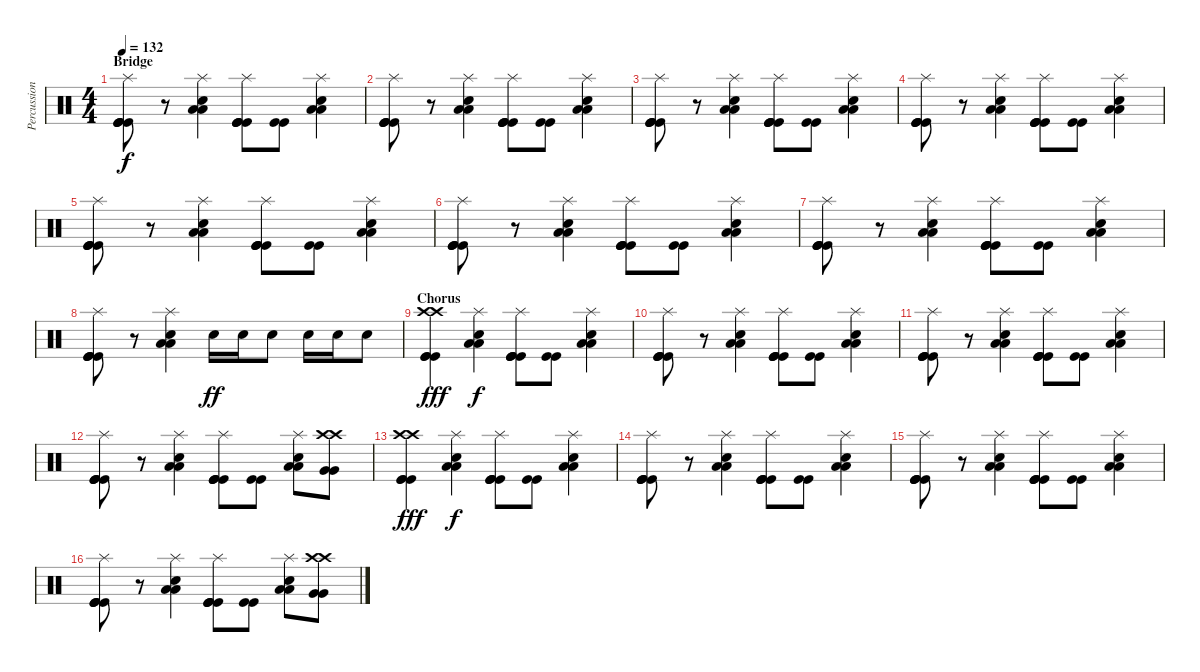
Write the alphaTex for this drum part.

\track ("Percussion" "Percussion") {instrument percussion}
\staff {score}
\articulation defaults
\ts (4 4)
\section ("" "Bridge")
\tempo 132
\clef neutral
\ks c
("Splash (hit)" "Kick (hit)" "Kick (hit)" "Kick (hit)" "Kick (hit)").8{dy f} r.8 ("Splash (hit)" "Low Tom (hit)" "Low Tom (hit)" "Electric Snare (hit)").4 ("Splash (hit)" "Kick (hit)" "Kick (hit)" "Kick (hit)" "Kick (hit)").8 ("Kick (hit)" "Kick (hit)").8 ("Splash (hit)" "Low Tom (hit)" "Low Tom (hit)" "Electric Snare (hit)").4 |
("Splash (hit)" "Kick (hit)" "Kick (hit)" "Kick (hit)" "Kick (hit)").8 r.8 ("Splash (hit)" "Low Tom (hit)" "Low Tom (hit)" "Electric Snare (hit)").4 ("Splash (hit)" "Kick (hit)" "Kick (hit)" "Kick (hit)" "Kick (hit)").8 ("Kick (hit)" "Kick (hit)").8 ("Splash (hit)" "Low Tom (hit)" "Low Tom (hit)" "Electric Snare (hit)").4 |
("Splash (hit)" "Kick (hit)" "Kick (hit)" "Kick (hit)" "Kick (hit)").8 r.8 ("Splash (hit)" "Low Tom (hit)" "Low Tom (hit)" "Electric Snare (hit)").4 ("Splash (hit)" "Kick (hit)" "Kick (hit)" "Kick (hit)" "Kick (hit)").8 ("Kick (hit)" "Kick (hit)").8 ("Splash (hit)" "Low Tom (hit)" "Low Tom (hit)" "Electric Snare (hit)").4 |
("Splash (hit)" "Kick (hit)" "Kick (hit)" "Kick (hit)" "Kick (hit)").8 r.8 ("Splash (hit)" "Low Tom (hit)" "Low Tom (hit)" "Electric Snare (hit)").4 ("Splash (hit)" "Kick (hit)" "Kick (hit)" "Kick (hit)" "Kick (hit)").8 ("Kick (hit)" "Kick (hit)").8 ("Splash (hit)" "Low Tom (hit)" "Low Tom (hit)" "Electric Snare (hit)").4 |
("Splash (hit)" "Kick (hit)" "Kick (hit)" "Kick (hit)" "Kick (hit)").8 r.8 ("Splash (hit)" "Low Tom (hit)" "Low Tom (hit)" "Electric Snare (hit)").4 ("Splash (hit)" "Kick (hit)" "Kick (hit)" "Kick (hit)" "Kick (hit)").8 ("Kick (hit)" "Kick (hit)").8 ("Splash (hit)" "Low Tom (hit)" "Low Tom (hit)" "Electric Snare (hit)").4 |
("Splash (hit)" "Kick (hit)" "Kick (hit)" "Kick (hit)" "Kick (hit)").8 r.8 ("Splash (hit)" "Low Tom (hit)" "Low Tom (hit)" "Electric Snare (hit)").4 ("Splash (hit)" "Kick (hit)" "Kick (hit)" "Kick (hit)" "Kick (hit)").8 ("Kick (hit)" "Kick (hit)").8 ("Splash (hit)" "Low Tom (hit)" "Low Tom (hit)" "Electric Snare (hit)").4 |
("Splash (hit)" "Kick (hit)" "Kick (hit)" "Kick (hit)" "Kick (hit)").8 r.8 ("Splash (hit)" "Low Tom (hit)" "Low Tom (hit)" "Electric Snare (hit)").4 ("Splash (hit)" "Kick (hit)" "Kick (hit)" "Kick (hit)" "Kick (hit)").8 ("Kick (hit)" "Kick (hit)").8 ("Splash (hit)" "Low Tom (hit)" "Low Tom (hit)" "Electric Snare (hit)").4 |
("Splash (hit)" "Kick (hit)" "Kick (hit)" "Kick (hit)" "Kick (hit)").8 r.8 ("Splash (hit)" "Low Tom (hit)" "Low Tom (hit)" "Electric Snare (hit)").4 "Electric Snare (hit)".16{dy ff} "Electric Snare (hit)".16 "Electric Snare (hit)".8 "Electric Snare (hit)".16 "Electric Snare (hit)".16 "Electric Snare (hit)".8 |
\section ("" "Chorus")
("Crash high (hit)" "Crash high (hit)" "Kick (hit)" "Kick (hit)" "Kick (hit)").4{dy fff} ("Splash (hit)" "Low Tom (hit)" "Low Tom (hit)" "Electric Snare (hit)").4{dy f} ("Splash (hit)" "Kick (hit)" "Kick (hit)" "Kick (hit)" "Kick (hit)").8 ("Kick (hit)" "Kick (hit)").8 ("Splash (hit)" "Low Tom (hit)" "Low Tom (hit)" "Electric Snare (hit)").4 |
("Splash (hit)" "Kick (hit)" "Kick (hit)" "Kick (hit)" "Kick (hit)").8 r.8 ("Splash (hit)" "Low Tom (hit)" "Low Tom (hit)" "Electric Snare (hit)").4 ("Splash (hit)" "Kick (hit)" "Kick (hit)" "Kick (hit)" "Kick (hit)").8 ("Kick (hit)" "Kick (hit)").8 ("Splash (hit)" "Low Tom (hit)" "Low Tom (hit)" "Electric Snare (hit)").4 |
("Splash (hit)" "Kick (hit)" "Kick (hit)" "Kick (hit)" "Kick (hit)").8 r.8 ("Splash (hit)" "Low Tom (hit)" "Low Tom (hit)" "Electric Snare (hit)").4 ("Splash (hit)" "Kick (hit)" "Kick (hit)" "Kick (hit)" "Kick (hit)").8 ("Kick (hit)" "Kick (hit)").8 ("Splash (hit)" "Low Tom (hit)" "Low Tom (hit)" "Electric Snare (hit)").4 |
("Splash (hit)" "Kick (hit)" "Kick (hit)" "Kick (hit)" "Kick (hit)").8 r.8 ("Splash (hit)" "Low Tom (hit)" "Low Tom (hit)" "Electric Snare (hit)").4 ("Splash (hit)" "Kick (hit)" "Kick (hit)" "Kick (hit)" "Kick (hit)").8 ("Kick (hit)" "Kick (hit)").8 ("Splash (hit)" "Low Tom (hit)" "Low Tom (hit)" "Electric Snare (hit)").8 ("Crash high (hit)" "Crash high (hit)" "Very Low Tom (hit)" "Very Low Tom (hit)").8 |
("Crash high (hit)" "Crash high (hit)" "Kick (hit)" "Kick (hit)" "Kick (hit)").4{dy fff} ("Splash (hit)" "Low Tom (hit)" "Low Tom (hit)" "Electric Snare (hit)").4{dy f} ("Splash (hit)" "Kick (hit)" "Kick (hit)" "Kick (hit)" "Kick (hit)").8 ("Kick (hit)" "Kick (hit)").8 ("Splash (hit)" "Low Tom (hit)" "Low Tom (hit)" "Electric Snare (hit)").4 |
("Splash (hit)" "Kick (hit)" "Kick (hit)" "Kick (hit)" "Kick (hit)").8 r.8 ("Splash (hit)" "Low Tom (hit)" "Low Tom (hit)" "Electric Snare (hit)").4 ("Splash (hit)" "Kick (hit)" "Kick (hit)" "Kick (hit)" "Kick (hit)").8 ("Kick (hit)" "Kick (hit)").8 ("Splash (hit)" "Low Tom (hit)" "Low Tom (hit)" "Electric Snare (hit)").4 |
("Splash (hit)" "Kick (hit)" "Kick (hit)" "Kick (hit)" "Kick (hit)").8 r.8 ("Splash (hit)" "Low Tom (hit)" "Low Tom (hit)" "Electric Snare (hit)").4 ("Splash (hit)" "Kick (hit)" "Kick (hit)" "Kick (hit)" "Kick (hit)").8 ("Kick (hit)" "Kick (hit)").8 ("Splash (hit)" "Low Tom (hit)" "Low Tom (hit)" "Electric Snare (hit)").4 |
("Splash (hit)" "Kick (hit)" "Kick (hit)" "Kick (hit)" "Kick (hit)").8 r.8 ("Splash (hit)" "Low Tom (hit)" "Low Tom (hit)" "Electric Snare (hit)").4 ("Splash (hit)" "Kick (hit)" "Kick (hit)" "Kick (hit)" "Kick (hit)").8 ("Kick (hit)" "Kick (hit)").8 ("Splash (hit)" "Low Tom (hit)" "Low Tom (hit)" "Electric Snare (hit)").8 ("Crash high (hit)" "Crash high (hit)" "Very Low Tom (hit)" "Very Low Tom (hit)").8
